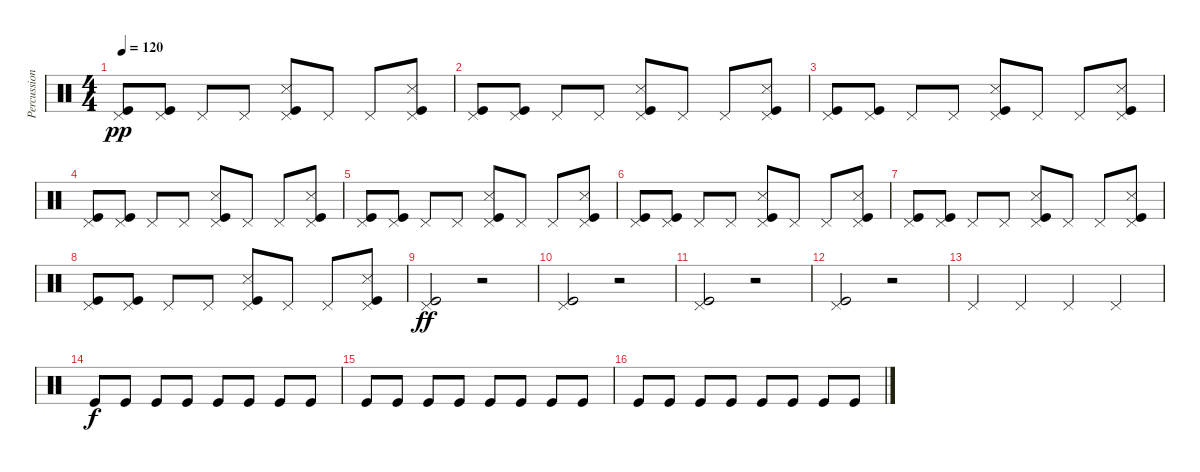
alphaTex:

\track ("Percussions" "Percussion") {instrument percussion}
\staff {score}
\articulation defaults
\ts (4 4)
\tempo 120
\clef neutral
\ks c
("Kick (hit)" "Pedal Hi-Hat (hit)").8{dy pp} ("Kick (hit)" "Pedal Hi-Hat (hit)").8 "Pedal Hi-Hat (hit)".8 "Pedal Hi-Hat (hit)".8 ("Snare (side stick) 3" "Kick (hit)" "Pedal Hi-Hat (hit)").8 "Pedal Hi-Hat (hit)".8 "Pedal Hi-Hat (hit)".8 ("Snare (side stick) 3" "Kick (hit)" "Pedal Hi-Hat (hit)").8 |
("Kick (hit)" "Pedal Hi-Hat (hit)").8 ("Kick (hit)" "Pedal Hi-Hat (hit)").8 "Pedal Hi-Hat (hit)".8 "Pedal Hi-Hat (hit)".8 ("Snare (side stick) 3" "Kick (hit)" "Pedal Hi-Hat (hit)").8 "Pedal Hi-Hat (hit)".8 "Pedal Hi-Hat (hit)".8 ("Snare (side stick) 3" "Kick (hit)" "Pedal Hi-Hat (hit)").8 |
("Kick (hit)" "Pedal Hi-Hat (hit)").8 ("Kick (hit)" "Pedal Hi-Hat (hit)").8 "Pedal Hi-Hat (hit)".8 "Pedal Hi-Hat (hit)".8 ("Snare (side stick) 3" "Kick (hit)" "Pedal Hi-Hat (hit)").8 "Pedal Hi-Hat (hit)".8 "Pedal Hi-Hat (hit)".8 ("Snare (side stick) 3" "Kick (hit)" "Pedal Hi-Hat (hit)").8 |
("Kick (hit)" "Pedal Hi-Hat (hit)").8 ("Kick (hit)" "Pedal Hi-Hat (hit)").8 "Pedal Hi-Hat (hit)".8 "Pedal Hi-Hat (hit)".8 ("Snare (side stick) 3" "Kick (hit)" "Pedal Hi-Hat (hit)").8 "Pedal Hi-Hat (hit)".8 "Pedal Hi-Hat (hit)".8 ("Snare (side stick) 3" "Kick (hit)" "Pedal Hi-Hat (hit)").8 |
("Kick (hit)" "Pedal Hi-Hat (hit)").8 ("Kick (hit)" "Pedal Hi-Hat (hit)").8 "Pedal Hi-Hat (hit)".8 "Pedal Hi-Hat (hit)".8 ("Snare (side stick) 3" "Kick (hit)" "Pedal Hi-Hat (hit)").8 "Pedal Hi-Hat (hit)".8 "Pedal Hi-Hat (hit)".8 ("Snare (side stick) 3" "Kick (hit)" "Pedal Hi-Hat (hit)").8 |
("Kick (hit)" "Pedal Hi-Hat (hit)").8 ("Kick (hit)" "Pedal Hi-Hat (hit)").8 "Pedal Hi-Hat (hit)".8 "Pedal Hi-Hat (hit)".8 ("Snare (side stick) 3" "Kick (hit)" "Pedal Hi-Hat (hit)").8 "Pedal Hi-Hat (hit)".8 "Pedal Hi-Hat (hit)".8 ("Snare (side stick) 3" "Kick (hit)" "Pedal Hi-Hat (hit)").8 |
("Kick (hit)" "Pedal Hi-Hat (hit)").8 ("Kick (hit)" "Pedal Hi-Hat (hit)").8 "Pedal Hi-Hat (hit)".8 "Pedal Hi-Hat (hit)".8 ("Snare (side stick) 3" "Kick (hit)" "Pedal Hi-Hat (hit)").8 "Pedal Hi-Hat (hit)".8 "Pedal Hi-Hat (hit)".8 ("Snare (side stick) 3" "Kick (hit)" "Pedal Hi-Hat (hit)").8 |
("Kick (hit)" "Pedal Hi-Hat (hit)").8 ("Kick (hit)" "Pedal Hi-Hat (hit)").8 "Pedal Hi-Hat (hit)".8 "Pedal Hi-Hat (hit)".8 ("Snare (side stick) 3" "Kick (hit)" "Pedal Hi-Hat (hit)").8 "Pedal Hi-Hat (hit)".8 "Pedal Hi-Hat (hit)".8 ("Snare (side stick) 3" "Kick (hit)" "Pedal Hi-Hat (hit)").8 |
("Kick (hit)" "Pedal Hi-Hat (hit)").2{dy ff} r.2 |
("Kick (hit)" "Pedal Hi-Hat (hit)").2 r.2 |
("Kick (hit)" "Pedal Hi-Hat (hit)").2 r.2 |
("Kick (hit)" "Pedal Hi-Hat (hit)").2 r.2 |
"Pedal Hi-Hat (hit)".4 "Pedal Hi-Hat (hit)".4 "Pedal Hi-Hat (hit)".4 "Pedal Hi-Hat (hit)".4 |
"Kick (hit)".8{dy f} "Kick (hit)".8 "Kick (hit)".8 "Kick (hit)".8 "Kick (hit)".8 "Kick (hit)".8 "Kick (hit)".8 "Kick (hit)".8 |
"Kick (hit)".8 "Kick (hit)".8 "Kick (hit)".8 "Kick (hit)".8 "Kick (hit)".8 "Kick (hit)".8 "Kick (hit)".8 "Kick (hit)".8 |
"Kick (hit)".8 "Kick (hit)".8 "Kick (hit)".8 "Kick (hit)".8 "Kick (hit)".8 "Kick (hit)".8 "Kick (hit)".8 "Kick (hit)".8
